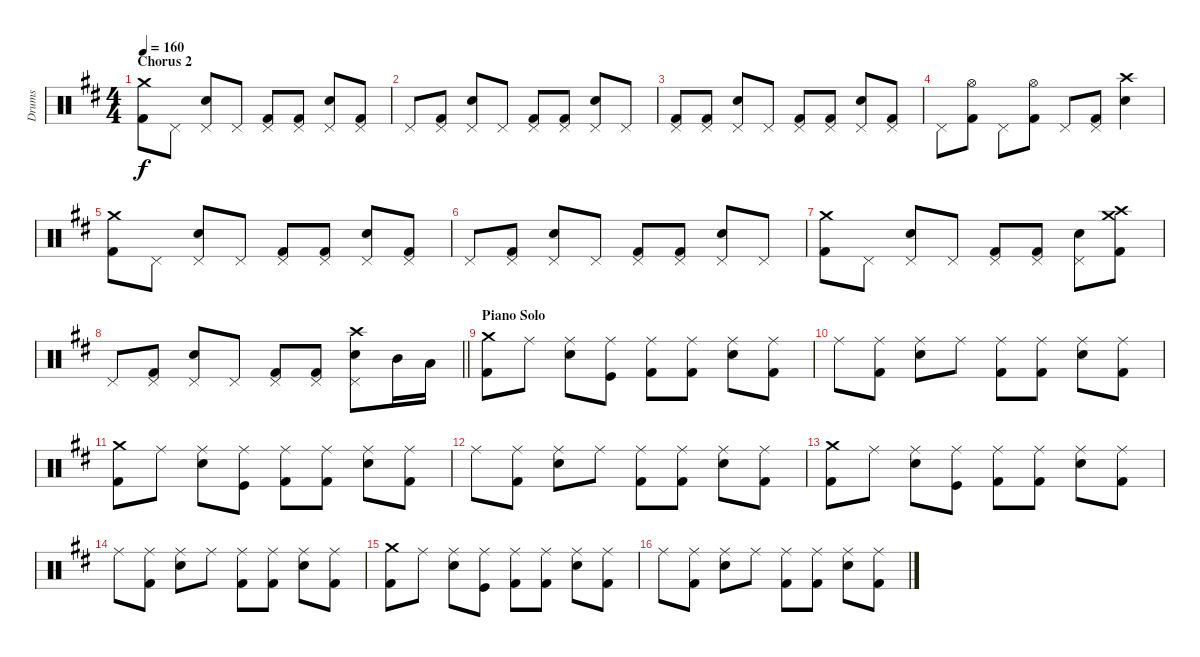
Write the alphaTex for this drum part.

\track ("Drums" "Drums") {instrument percussion}
\staff {score}
\articulation defaults
\ts (4 4)
\section ("" "Chorus 2")
\tempo 160
\clef neutral
\ks d
("Crash medium (hit)" "Kick (hit) 2").8{dy f} "Pedal Hi-Hat (hit)".8 ("Pedal Hi-Hat (hit)" "Electric Snare (hit)").8 "Pedal Hi-Hat (hit)".8 ("Pedal Hi-Hat (hit)" "Kick (hit) 2").8 ("Pedal Hi-Hat (hit)" "Kick (hit) 2").8 ("Pedal Hi-Hat (hit)" "Electric Snare (hit)").8 ("Pedal Hi-Hat (hit)" "Kick (hit) 2").8 |
"Pedal Hi-Hat (hit)".8 ("Pedal Hi-Hat (hit)" "Kick (hit) 2").8 ("Pedal Hi-Hat (hit)" "Electric Snare (hit)").8 "Pedal Hi-Hat (hit)".8 ("Pedal Hi-Hat (hit)" "Kick (hit) 2").8 ("Pedal Hi-Hat (hit)" "Kick (hit) 2").8 ("Pedal Hi-Hat (hit)" "Electric Snare (hit)").8 "Pedal Hi-Hat (hit)".8 |
("Pedal Hi-Hat (hit)" "Kick (hit) 2").8 ("Pedal Hi-Hat (hit)" "Kick (hit) 2").8 ("Pedal Hi-Hat (hit)" "Electric Snare (hit)").8 "Pedal Hi-Hat (hit)".8 ("Pedal Hi-Hat (hit)" "Kick (hit) 2").8 ("Pedal Hi-Hat (hit)" "Kick (hit) 2").8 ("Pedal Hi-Hat (hit)" "Electric Snare (hit)").8 ("Pedal Hi-Hat (hit)" "Kick (hit) 2").8 |
"Pedal Hi-Hat (hit)".8 ("Hi-Hat (open)" "Kick (hit) 2").8 "Pedal Hi-Hat (hit)".8 ("Hi-Hat (open)" "Kick (hit) 2").8 "Pedal Hi-Hat (hit)".8 ("Pedal Hi-Hat (hit)" "Kick (hit) 2").8 ("Crash high (hit)" "Electric Snare (hit)").4 |
("Crash medium (hit)" "Kick (hit) 2").8 "Pedal Hi-Hat (hit)".8 ("Pedal Hi-Hat (hit)" "Electric Snare (hit)").8 "Pedal Hi-Hat (hit)".8 ("Pedal Hi-Hat (hit)" "Kick (hit) 2").8 ("Pedal Hi-Hat (hit)" "Kick (hit) 2").8 ("Pedal Hi-Hat (hit)" "Electric Snare (hit)").8 ("Pedal Hi-Hat (hit)" "Kick (hit) 2").8 |
"Pedal Hi-Hat (hit)".8 ("Pedal Hi-Hat (hit)" "Kick (hit) 2").8 ("Pedal Hi-Hat (hit)" "Electric Snare (hit)").8 "Pedal Hi-Hat (hit)".8 ("Pedal Hi-Hat (hit)" "Kick (hit) 2").8 ("Pedal Hi-Hat (hit)" "Kick (hit) 2").8 ("Pedal Hi-Hat (hit)" "Electric Snare (hit)").8 "Pedal Hi-Hat (hit)".8 |
("Crash medium (hit)" "Kick (hit) 2").8 "Pedal Hi-Hat (hit)".8 ("Pedal Hi-Hat (hit)" "Electric Snare (hit)").8 "Pedal Hi-Hat (hit)".8 ("Pedal Hi-Hat (hit)" "Kick (hit) 2").8 ("Pedal Hi-Hat (hit)" "Kick (hit) 2").8 ("Pedal Hi-Hat (hit)" "Electric Snare (hit)").8 ("Crash medium (hit)" "Crash high (hit)" "Kick (hit) 2").8 |
\barLineRight lightlight "Pedal Hi-Hat (hit)".8
("Pedal Hi-Hat (hit)" "Kick (hit) 2").8 ("Pedal Hi-Hat (hit)" "Electric Snare (hit)").8 "Pedal Hi-Hat (hit)".8 ("Pedal Hi-Hat (hit)" "Kick (hit) 2").8 ("Pedal Hi-Hat (hit)" "Kick (hit) 2").8 ("Crash high (hit)" "Pedal Hi-Hat (hit)" "Electric Snare (hit)").8 "Mid Tom (hit)".16 "Low Tom (hit)".16 |
\section ("" "Piano Solo")
("Crash medium (hit)" "Kick (hit) 2").8 "Ride (middle)".8 ("Ride (middle)" "Electric Snare (hit)").8 ("Ride (middle)" "Kick (hit)").8 ("Ride (middle)" "Kick (hit) 2").8 ("Ride (middle)" "Kick (hit) 2").8 ("Ride (middle)" "Electric Snare (hit)").8 ("Ride (middle)" "Kick (hit) 2").8 |
"Ride (middle)".8 ("Ride (middle)" "Kick (hit) 2").8 ("Ride (middle)" "Electric Snare (hit)").8 "Ride (middle)".8 ("Ride (middle)" "Kick (hit) 2").8 ("Ride (middle)" "Kick (hit) 2").8 ("Ride (middle)" "Electric Snare (hit)").8 ("Ride (middle)" "Kick (hit) 2").8 |
("Crash medium (hit)" "Kick (hit) 2").8 "Ride (middle)".8 ("Ride (middle)" "Electric Snare (hit)").8 ("Ride (middle)" "Kick (hit)").8 ("Ride (middle)" "Kick (hit) 2").8 ("Ride (middle)" "Kick (hit) 2").8 ("Ride (middle)" "Electric Snare (hit)").8 ("Ride (middle)" "Kick (hit) 2").8 |
"Ride (middle)".8 ("Ride (middle)" "Kick (hit) 2").8 ("Ride (middle)" "Electric Snare (hit)").8 "Ride (middle)".8 ("Ride (middle)" "Kick (hit) 2").8 ("Ride (middle)" "Kick (hit) 2").8 ("Ride (middle)" "Electric Snare (hit)").8 ("Ride (middle)" "Kick (hit) 2").8 |
("Crash medium (hit)" "Kick (hit) 2").8 "Ride (middle)".8 ("Ride (middle)" "Electric Snare (hit)").8 ("Ride (middle)" "Kick (hit)").8 ("Ride (middle)" "Kick (hit) 2").8 ("Ride (middle)" "Kick (hit) 2").8 ("Ride (middle)" "Electric Snare (hit)").8 ("Ride (middle)" "Kick (hit) 2").8 |
"Ride (middle)".8 ("Ride (middle)" "Kick (hit) 2").8 ("Ride (middle)" "Electric Snare (hit)").8 "Ride (middle)".8 ("Ride (middle)" "Kick (hit) 2").8 ("Ride (middle)" "Kick (hit) 2").8 ("Ride (middle)" "Electric Snare (hit)").8 ("Ride (middle)" "Kick (hit) 2").8 |
("Crash medium (hit)" "Kick (hit) 2").8 "Ride (middle)".8 ("Ride (middle)" "Electric Snare (hit)").8 ("Ride (middle)" "Kick (hit)").8 ("Ride (middle)" "Kick (hit) 2").8 ("Ride (middle)" "Kick (hit) 2").8 ("Ride (middle)" "Electric Snare (hit)").8 ("Ride (middle)" "Kick (hit) 2").8 |
"Ride (middle)".8 ("Ride (middle)" "Kick (hit) 2").8 ("Ride (middle)" "Electric Snare (hit)").8 "Ride (middle)".8 ("Ride (middle)" "Kick (hit) 2").8 ("Ride (middle)" "Kick (hit) 2").8 ("Ride (middle)" "Electric Snare (hit)").8 ("Ride (middle)" "Kick (hit) 2").8
